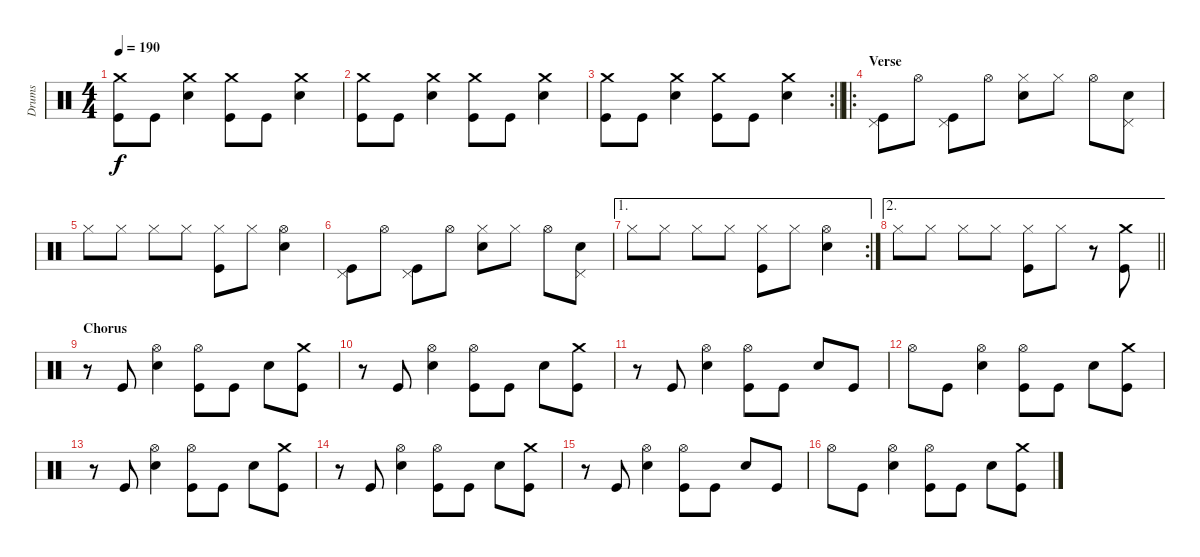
\track ("Drums" "Drums") {instrument percussion}
\staff {score}
\articulation defaults
\ts (4 4)
\tempo 190
\clef neutral
\ks c
("Crash medium (hit)" "Kick (hit)").8{dy f} "Kick (hit)".8 ("Crash medium (hit)" "Snare (hit) 2").4 ("Crash medium (hit)" "Kick (hit)").8 "Kick (hit)".8 ("Crash medium (hit)" "Snare (hit) 2").4 |
("Crash medium (hit)" "Kick (hit)").8 "Kick (hit)".8 ("Crash medium (hit)" "Snare (hit) 2").4 ("Crash medium (hit)" "Kick (hit)").8 "Kick (hit)".8 ("Crash medium (hit)" "Snare (hit) 2").4 |
\rc 2
\barLineRight lightlight
("Crash medium (hit)" "Kick (hit)").8 "Kick (hit)".8 ("Crash medium (hit)" "Snare (hit) 2").4 ("Crash medium (hit)" "Kick (hit)").8 "Kick (hit)".8 ("Crash medium (hit)" "Snare (hit) 2").4 |
\ro
\section ("" "Verse")
("Pedal Hi-Hat (hit)" "Kick (hit)").8 "Hi-Hat (open)".8 ("Pedal Hi-Hat (hit)" "Kick (hit)").8 "Hi-Hat (open)".8 ("Hi-Hat (closed)" "Snare (hit) 2").8 "Hi-Hat (closed)".8 "Hi-Hat (open)".8 ("Pedal Hi-Hat (hit)" "Snare (hit) 2").8 |
"Hi-Hat (closed)".8 "Hi-Hat (closed)".8 "Hi-Hat (closed)".8 "Hi-Hat (closed)".8 ("Hi-Hat (closed)" "Kick (hit)").8 "Hi-Hat (closed)".8 ("Hi-Hat (open)" "Snare (hit) 2").4 |
("Pedal Hi-Hat (hit)" "Kick (hit)").8 "Hi-Hat (open)".8 ("Pedal Hi-Hat (hit)" "Kick (hit)").8 "Hi-Hat (open)".8 ("Hi-Hat (closed)" "Snare (hit) 2").8 "Hi-Hat (closed)".8 "Hi-Hat (open)".8 ("Pedal Hi-Hat (hit)" "Snare (hit) 2").8 |
\ae 1
\rc 2 "Hi-Hat (closed)".8 "Hi-Hat (closed)".8 "Hi-Hat (closed)".8 "Hi-Hat (closed)".8
("Hi-Hat (closed)" "Kick (hit)").8 "Hi-Hat (closed)".8 ("Hi-Hat (open)" "Snare (hit) 2").4 |
\ae 2
\barLineRight lightlight "Hi-Hat (closed)".8 "Hi-Hat (closed)".8 "Hi-Hat (closed)".8 "Hi-Hat (closed)".8
("Hi-Hat (closed)" "Kick (hit)").8 "Hi-Hat (closed)".8 r.8 ("Crash medium (hit)" "Kick (hit)").8 |
\section ("" "Chorus")
r.8 "Kick (hit)".8 ("Hi-Hat (open)" "Snare (hit) 2").4 ("Hi-Hat (open)" "Kick (hit)").8 "Kick (hit)".8 "Snare (hit) 2".8 ("Crash medium (hit)" "Kick (hit)").8 |
r.8 "Kick (hit)".8 ("Hi-Hat (open)" "Snare (hit) 2").4 ("Hi-Hat (open)" "Kick (hit)").8 "Kick (hit)".8 "Snare (hit) 2".8 ("Crash medium (hit)" "Kick (hit)").8 |
r.8 "Kick (hit)".8 ("Hi-Hat (open)" "Snare (hit) 2").4 ("Hi-Hat (open)" "Kick (hit)").8 "Kick (hit)".8 "Snare (hit) 2".8 "Kick (hit)".8 |
"Hi-Hat (open)".8 "Kick (hit)".8 ("Hi-Hat (open)" "Snare (hit) 2").4 ("Hi-Hat (open)" "Kick (hit)").8 "Kick (hit)".8 "Snare (hit) 2".8 ("Crash medium (hit)" "Kick (hit)").8 |
r.8 "Kick (hit)".8 ("Hi-Hat (open)" "Snare (hit) 2").4 ("Hi-Hat (open)" "Kick (hit)").8 "Kick (hit)".8 "Snare (hit) 2".8 ("Crash medium (hit)" "Kick (hit)").8 |
r.8 "Kick (hit)".8 ("Hi-Hat (open)" "Snare (hit) 2").4 ("Hi-Hat (open)" "Kick (hit)").8 "Kick (hit)".8 "Snare (hit) 2".8 ("Crash medium (hit)" "Kick (hit)").8 |
r.8 "Kick (hit)".8 ("Hi-Hat (open)" "Snare (hit) 2").4 ("Hi-Hat (open)" "Kick (hit)").8 "Kick (hit)".8 "Snare (hit) 2".8 "Kick (hit)".8 |
"Hi-Hat (open)".8 "Kick (hit)".8 ("Hi-Hat (open)" "Snare (hit) 2").4 ("Hi-Hat (open)" "Kick (hit)").8 "Kick (hit)".8 "Snare (hit) 2".8 ("Crash medium (hit)" "Kick (hit)").8
